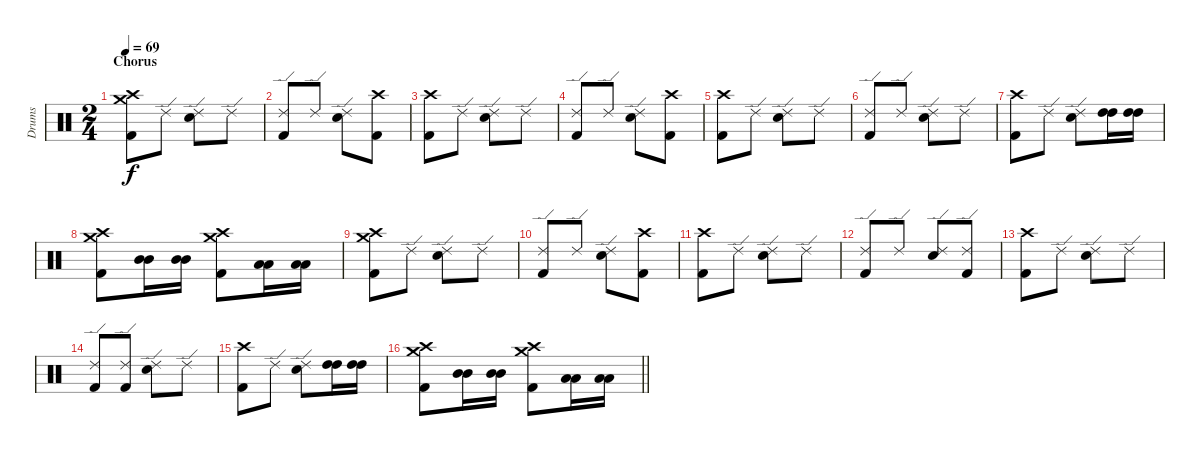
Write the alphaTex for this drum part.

\track ("Drums" "Drums") {instrument percussion}
\staff {score}
\articulation defaults
\ts (2 4)
\section ("" "Chorus")
\tempo 69
\clef neutral
\ks c
("Kick (hit) 2" "Crash high (hit)" "Crash medium (hit)").8{dy f} "Ride (edge) 2".8 ("Electric Snare (hit)" "Ride (edge) 2").8 "Ride (edge) 2".8 |
("Kick (hit) 2" "Ride (edge) 2").8 "Ride (edge) 2".8 ("Electric Snare (hit)" "Ride (edge) 2").8 ("Kick (hit) 2" "Crash high (hit)").8 |
("Kick (hit) 2" "Crash high (hit)").8 "Ride (edge) 2".8 ("Electric Snare (hit)" "Ride (edge) 2").8 "Ride (edge) 2".8 |
("Kick (hit) 2" "Ride (edge) 2").8 "Ride (edge) 2".8 ("Electric Snare (hit)" "Ride (edge) 2").8 ("Kick (hit) 2" "Crash high (hit)").8 |
("Kick (hit) 2" "Crash high (hit)").8 "Ride (edge) 2".8 ("Electric Snare (hit)" "Ride (edge) 2").8 "Ride (edge) 2".8 |
("Kick (hit) 2" "Ride (edge) 2").8 "Ride (edge) 2".8 ("Electric Snare (hit)" "Ride (edge) 2").8 "Ride (edge) 2".8 |
("Kick (hit) 2" "Crash high (hit)").8 "Ride (edge) 2".8 ("Electric Snare (hit)" "Ride (edge) 2").8 ("High Tom (hit)" "High Tom (hit)").16 ("High Tom (hit)" "High Tom (hit)").16 |
("Kick (hit) 2" "Crash high (hit)" "Crash medium (hit)").8 ("Mid Tom (hit)" "Mid Tom (hit)").16 ("Mid Tom (hit)" "Mid Tom (hit)").16 ("Kick (hit) 2" "Crash high (hit)" "Crash medium (hit)").8 ("Low Tom (hit)" "Low Tom (hit)").16 ("Low Tom (hit)" "Low Tom (hit)").16 |
("Kick (hit) 2" "Crash high (hit)" "Crash medium (hit)").8 "Ride (edge) 2".8 ("Electric Snare (hit)" "Ride (edge) 2").8 "Ride (edge) 2".8 |
("Kick (hit) 2" "Ride (edge) 2").8 "Ride (edge) 2".8 ("Electric Snare (hit)" "Ride (edge) 2").8 ("Kick (hit) 2" "Crash high (hit)").8 |
("Kick (hit) 2" "Crash high (hit)").8 "Ride (edge) 2".8 ("Electric Snare (hit)" "Ride (edge) 2").8 "Ride (edge) 2".8 |
("Kick (hit) 2" "Ride (edge) 2").8 "Ride (edge) 2".8 ("Electric Snare (hit)" "Ride (edge) 2").8 ("Kick (hit) 2" "Ride (edge) 2").8 |
("Kick (hit) 2" "Crash high (hit)").8 "Ride (edge) 2".8 ("Electric Snare (hit)" "Ride (edge) 2").8 "Ride (edge) 2".8 |
("Kick (hit) 2" "Ride (edge) 2").8 ("Kick (hit) 2" "Ride (edge) 2").8 ("Electric Snare (hit)" "Ride (edge) 2").8 "Ride (edge) 2".8 |
("Kick (hit) 2" "Crash high (hit)").8 "Ride (edge) 2".8 ("Electric Snare (hit)" "Ride (edge) 2").8 ("High Tom (hit)" "High Tom (hit)").16 ("High Tom (hit)" "High Tom (hit)").16 |
\barLineRight lightlight
("Kick (hit) 2" "Crash high (hit)" "Crash medium (hit)").8 ("Mid Tom (hit)" "Mid Tom (hit)").16 ("Mid Tom (hit)" "Mid Tom (hit)").16 ("Kick (hit) 2" "Crash high (hit)" "Crash medium (hit)").8 ("Low Tom (hit)" "Low Tom (hit)").16 ("Low Tom (hit)" "Low Tom (hit)").16
